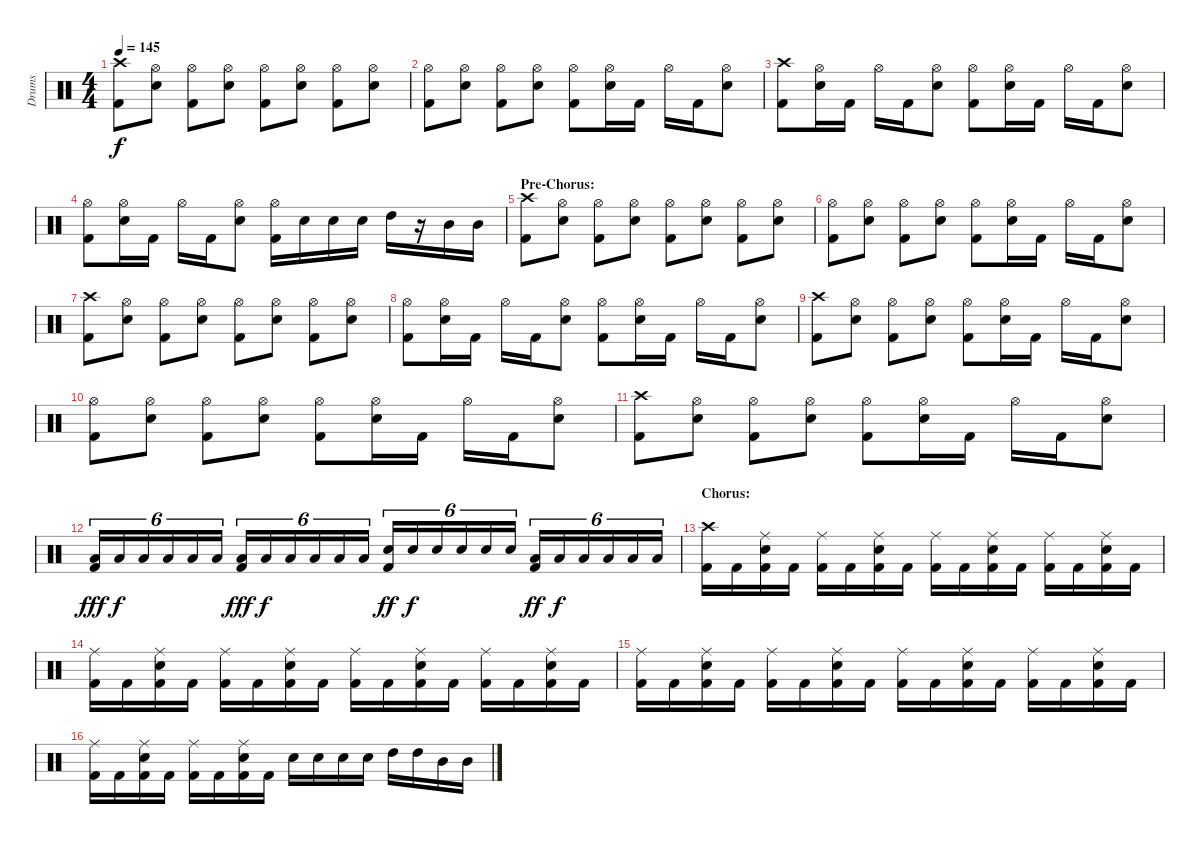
\track ("Drums" "Drums") {instrument percussion}
\staff {score}
\articulation defaults
\ts (4 4)
\tempo 145
\clef neutral
\ks c
("Crash high (hit)" "Kick (hit) 2").8{dy f} ("Hi-Hat (open)" "Electric Snare (hit)").8 ("Hi-Hat (open)" "Kick (hit) 2").8 ("Hi-Hat (open)" "Electric Snare (hit)").8 ("Hi-Hat (open)" "Kick (hit) 2").8 ("Hi-Hat (open)" "Electric Snare (hit)").8 ("Hi-Hat (open)" "Kick (hit) 2").8 ("Hi-Hat (open)" "Electric Snare (hit)").8 |
("Hi-Hat (open)" "Kick (hit) 2").8 ("Hi-Hat (open)" "Electric Snare (hit)").8 ("Hi-Hat (open)" "Kick (hit) 2").8 ("Hi-Hat (open)" "Electric Snare (hit)").8 ("Hi-Hat (open)" "Kick (hit) 2").8 ("Hi-Hat (open)" "Electric Snare (hit)").16 "Kick (hit) 2".16 "Hi-Hat (open)".16 "Kick (hit) 2".16 ("Hi-Hat (open)" "Electric Snare (hit)").8 |
("Crash high (hit)" "Kick (hit) 2").8 ("Hi-Hat (open)" "Electric Snare (hit)").16 "Kick (hit) 2".16 "Hi-Hat (open)".16 "Kick (hit) 2".16 ("Hi-Hat (open)" "Electric Snare (hit)").8 ("Hi-Hat (open)" "Kick (hit) 2").8 ("Hi-Hat (open)" "Electric Snare (hit)").16 "Kick (hit) 2".16 "Hi-Hat (open)".16 "Kick (hit) 2".16 ("Hi-Hat (open)" "Electric Snare (hit)").8 |
("Hi-Hat (open)" "Kick (hit) 2").8 ("Hi-Hat (open)" "Electric Snare (hit)").16 "Kick (hit) 2".16 "Hi-Hat (open)".16 "Kick (hit) 2".16 ("Hi-Hat (open)" "Electric Snare (hit)").8 ("Hi-Hat (open)" "Kick (hit) 2").16 "Electric Snare (hit)".16 "Electric Snare (hit)".16 "Electric Snare (hit)".16 "High Tom (hit)".16 r.16 "Mid Tom (hit)".16 "Mid Tom (hit)".16 |
\section ("" "Pre-Chorus:")
("Crash high (hit)" "Kick (hit) 2").8 ("Hi-Hat (open)" "Electric Snare (hit)").8 ("Hi-Hat (open)" "Kick (hit) 2").8 ("Hi-Hat (open)" "Electric Snare (hit)").8 ("Hi-Hat (open)" "Kick (hit) 2").8 ("Hi-Hat (open)" "Electric Snare (hit)").8 ("Hi-Hat (open)" "Kick (hit) 2").8 ("Hi-Hat (open)" "Electric Snare (hit)").8 |
("Hi-Hat (open)" "Kick (hit) 2").8 ("Hi-Hat (open)" "Electric Snare (hit)").8 ("Hi-Hat (open)" "Kick (hit) 2").8 ("Hi-Hat (open)" "Electric Snare (hit)").8 ("Hi-Hat (open)" "Kick (hit) 2").8 ("Hi-Hat (open)" "Electric Snare (hit)").16 "Kick (hit) 2".16 "Hi-Hat (open)".16 "Kick (hit) 2".16 ("Hi-Hat (open)" "Electric Snare (hit)").8 |
("Crash high (hit)" "Kick (hit) 2").8 ("Hi-Hat (open)" "Electric Snare (hit)").8 ("Hi-Hat (open)" "Kick (hit) 2").8 ("Hi-Hat (open)" "Electric Snare (hit)").8 ("Hi-Hat (open)" "Kick (hit) 2").8 ("Hi-Hat (open)" "Electric Snare (hit)").8 ("Hi-Hat (open)" "Kick (hit) 2").8 ("Hi-Hat (open)" "Electric Snare (hit)").8 |
("Hi-Hat (open)" "Kick (hit) 2").8 ("Hi-Hat (open)" "Electric Snare (hit)").16 "Kick (hit) 2".16 "Hi-Hat (open)".16 "Kick (hit) 2".16 ("Hi-Hat (open)" "Electric Snare (hit)").8 ("Hi-Hat (open)" "Kick (hit) 2").8 ("Hi-Hat (open)" "Electric Snare (hit)").16 "Kick (hit) 2".16 "Hi-Hat (open)".16 "Kick (hit) 2".16 ("Hi-Hat (open)" "Electric Snare (hit)").8 |
("Crash high (hit)" "Kick (hit) 2").8 ("Hi-Hat (open)" "Electric Snare (hit)").8 ("Hi-Hat (open)" "Kick (hit) 2").8 ("Hi-Hat (open)" "Electric Snare (hit)").8 ("Hi-Hat (open)" "Kick (hit) 2").8 ("Hi-Hat (open)" "Electric Snare (hit)").16 "Kick (hit) 2".16 "Hi-Hat (open)".16 "Kick (hit) 2".16 ("Hi-Hat (open)" "Electric Snare (hit)").8 |
("Hi-Hat (open)" "Kick (hit) 2").8 ("Hi-Hat (open)" "Electric Snare (hit)").8 ("Hi-Hat (open)" "Kick (hit) 2").8 ("Hi-Hat (open)" "Electric Snare (hit)").8 ("Hi-Hat (open)" "Kick (hit) 2").8 ("Hi-Hat (open)" "Electric Snare (hit)").16 "Kick (hit) 2".16 "Hi-Hat (open)".16 "Kick (hit) 2".16 ("Hi-Hat (open)" "Electric Snare (hit)").8 |
("Crash high (hit)" "Kick (hit) 2").8 ("Hi-Hat (open)" "Electric Snare (hit)").8 ("Hi-Hat (open)" "Kick (hit) 2").8 ("Hi-Hat (open)" "Electric Snare (hit)").8 ("Hi-Hat (open)" "Kick (hit) 2").8 ("Hi-Hat (open)" "Electric Snare (hit)").16 "Kick (hit) 2".16 "Hi-Hat (open)".16 "Kick (hit) 2".16 ("Hi-Hat (open)" "Electric Snare (hit)").8 |
("Low Tom (hit)" "Kick (hit) 2").16{tu (6 4) dy fff} "Low Tom (hit)".16{tu (6 4) dy f} "Low Tom (hit)".16{tu (6 4)} "Low Tom (hit)".16{tu (6 4)} "Low Tom (hit)".16{tu (6 4)} "Low Tom (hit)".16{tu (6 4)} ("Low Tom (hit)" "Kick (hit) 2").16{tu (6 4) dy fff} "Low Tom (hit)".16{tu (6 4) dy f} "Low Tom (hit)".16{tu (6 4)} "Low Tom (hit)".16{tu (6 4)} "Low Tom (hit)".16{tu (6 4)} "Low Tom (hit)".16{tu (6 4)} ("Electric Snare (hit)" "Kick (hit) 2").16{tu (6 4) dy ff} "Electric Snare (hit)".16{tu (6 4) dy f} "Electric Snare (hit)".16{tu (6 4)} "Electric Snare (hit)".16{tu (6 4)} "Electric Snare (hit)".16{tu (6 4)} "Electric Snare (hit)".16{tu (6 4)} ("Low Floor Tom (hit)" "Kick (hit) 2").16{tu (6 4) dy ff} "Low Floor Tom (hit)".16{tu (6 4) dy f} "Low Floor Tom (hit)".16{tu (6 4)} "Low Floor Tom (hit)".16{tu (6 4)} "Low Floor Tom (hit)".16{tu (6 4)} "Low Floor Tom (hit)".16{tu (6 4)} |
\section ("" "Chorus:")
("Crash high (hit)" "Kick (hit) 2").16 "Kick (hit) 2".16 ("Ride (middle)" "Electric Snare (hit)" "Kick (hit) 2").16 "Kick (hit) 2".16 ("Ride (middle)" "Kick (hit) 2").16 "Kick (hit) 2".16 ("Ride (middle)" "Electric Snare (hit)" "Kick (hit) 2").16 "Kick (hit) 2".16 ("Ride (middle)" "Kick (hit) 2").16 "Kick (hit) 2".16 ("Ride (middle)" "Electric Snare (hit)" "Kick (hit) 2").16 "Kick (hit) 2".16 ("Ride (middle)" "Kick (hit) 2").16 "Kick (hit) 2".16 ("Ride (middle)" "Electric Snare (hit)" "Kick (hit) 2").16 "Kick (hit) 2".16 |
("Ride (middle)" "Kick (hit) 2").16 "Kick (hit) 2".16 ("Ride (middle)" "Electric Snare (hit)" "Kick (hit) 2").16 "Kick (hit) 2".16 ("Ride (middle)" "Kick (hit) 2").16 "Kick (hit) 2".16 ("Ride (middle)" "Electric Snare (hit)" "Kick (hit) 2").16 "Kick (hit) 2".16 ("Ride (middle)" "Kick (hit) 2").16 "Kick (hit) 2".16 ("Ride (middle)" "Electric Snare (hit)" "Kick (hit) 2").16 "Kick (hit) 2".16 ("Ride (middle)" "Kick (hit) 2").16 "Kick (hit) 2".16 ("Ride (middle)" "Electric Snare (hit)" "Kick (hit) 2").16 "Kick (hit) 2".16 |
("Ride (middle)" "Kick (hit) 2").16 "Kick (hit) 2".16 ("Ride (middle)" "Electric Snare (hit)" "Kick (hit) 2").16 "Kick (hit) 2".16 ("Ride (middle)" "Kick (hit) 2").16 "Kick (hit) 2".16 ("Ride (middle)" "Electric Snare (hit)" "Kick (hit) 2").16 "Kick (hit) 2".16 ("Ride (middle)" "Kick (hit) 2").16 "Kick (hit) 2".16 ("Ride (middle)" "Electric Snare (hit)" "Kick (hit) 2").16 "Kick (hit) 2".16 ("Ride (middle)" "Kick (hit) 2").16 "Kick (hit) 2".16 ("Ride (middle)" "Electric Snare (hit)" "Kick (hit) 2").16 "Kick (hit) 2".16 |
("Ride (middle)" "Kick (hit) 2").16 "Kick (hit) 2".16 ("Ride (middle)" "Electric Snare (hit)" "Kick (hit) 2").16 "Kick (hit) 2".16 ("Ride (middle)" "Kick (hit) 2").16 "Kick (hit) 2".16 ("Ride (middle)" "Electric Snare (hit)" "Kick (hit) 2").16 "Kick (hit) 2".16 "Electric Snare (hit)".16 "Electric Snare (hit)".16 "Electric Snare (hit)".16 "Electric Snare (hit)".16 "High Tom (hit)".16 "High Tom (hit)".16 "Mid Tom (hit)".16 "Mid Tom (hit)".16
